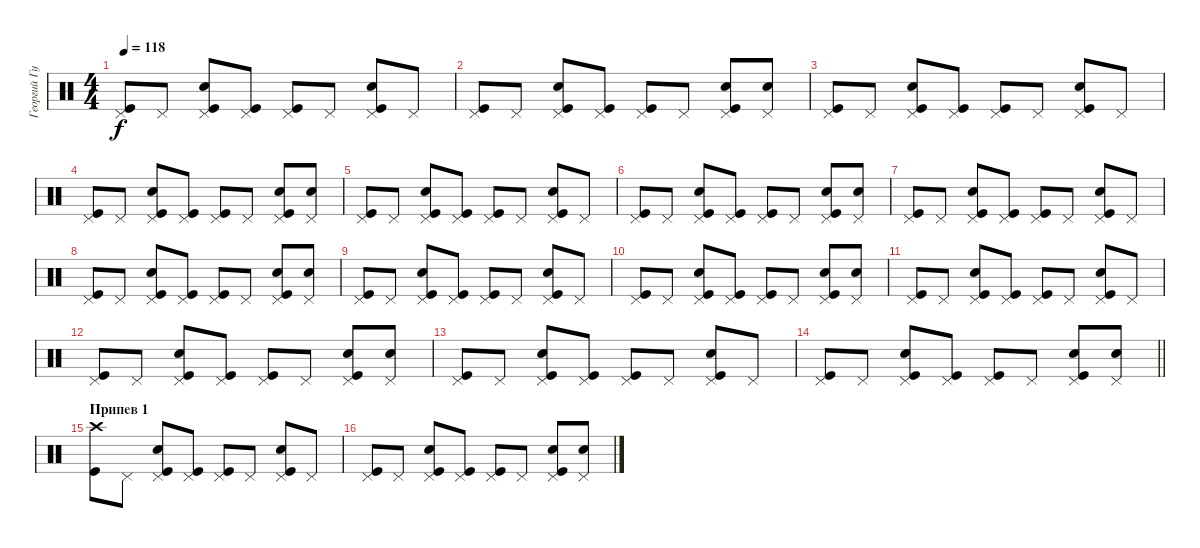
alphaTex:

\track ("Георгий Гурьянов" "Георгий Гу") {instrument percussion}
\staff {score}
\articulation defaults
\ts (4 4)
\tempo 118
\clef neutral
\ks c
("Pedal Hi-Hat (hit)" "Kick (hit)").8{dy f} "Pedal Hi-Hat (hit)".8 ("Pedal Hi-Hat (hit)" "Kick (hit)" "Snare (hit) 2").8 ("Pedal Hi-Hat (hit)" "Kick (hit)").8 ("Pedal Hi-Hat (hit)" "Kick (hit)").8 "Pedal Hi-Hat (hit)".8 ("Pedal Hi-Hat (hit)" "Kick (hit)" "Snare (hit) 2").8 "Pedal Hi-Hat (hit)".8 |
("Pedal Hi-Hat (hit)" "Kick (hit)").8 "Pedal Hi-Hat (hit)".8 ("Pedal Hi-Hat (hit)" "Kick (hit)" "Snare (hit) 2").8 ("Pedal Hi-Hat (hit)" "Kick (hit)").8 ("Pedal Hi-Hat (hit)" "Kick (hit)").8 "Pedal Hi-Hat (hit)".8 ("Pedal Hi-Hat (hit)" "Kick (hit)" "Snare (hit) 2").8 ("Pedal Hi-Hat (hit)" "Snare (hit) 2").8 |
("Pedal Hi-Hat (hit)" "Kick (hit)").8 "Pedal Hi-Hat (hit)".8 ("Pedal Hi-Hat (hit)" "Kick (hit)" "Snare (hit) 2").8 ("Pedal Hi-Hat (hit)" "Kick (hit)").8 ("Pedal Hi-Hat (hit)" "Kick (hit)").8 "Pedal Hi-Hat (hit)".8 ("Pedal Hi-Hat (hit)" "Kick (hit)" "Snare (hit) 2").8 "Pedal Hi-Hat (hit)".8 |
("Pedal Hi-Hat (hit)" "Kick (hit)").8 "Pedal Hi-Hat (hit)".8 ("Pedal Hi-Hat (hit)" "Kick (hit)" "Snare (hit) 2").8 ("Pedal Hi-Hat (hit)" "Kick (hit)").8 ("Pedal Hi-Hat (hit)" "Kick (hit)").8 "Pedal Hi-Hat (hit)".8 ("Pedal Hi-Hat (hit)" "Kick (hit)" "Snare (hit) 2").8 ("Pedal Hi-Hat (hit)" "Snare (hit) 2").8 |
("Pedal Hi-Hat (hit)" "Kick (hit)").8 "Pedal Hi-Hat (hit)".8 ("Pedal Hi-Hat (hit)" "Kick (hit)" "Snare (hit) 2").8 ("Pedal Hi-Hat (hit)" "Kick (hit)").8 ("Pedal Hi-Hat (hit)" "Kick (hit)").8 "Pedal Hi-Hat (hit)".8 ("Pedal Hi-Hat (hit)" "Kick (hit)" "Snare (hit) 2").8 "Pedal Hi-Hat (hit)".8 |
("Pedal Hi-Hat (hit)" "Kick (hit)").8 "Pedal Hi-Hat (hit)".8 ("Pedal Hi-Hat (hit)" "Kick (hit)" "Snare (hit) 2").8 ("Pedal Hi-Hat (hit)" "Kick (hit)").8 ("Pedal Hi-Hat (hit)" "Kick (hit)").8 "Pedal Hi-Hat (hit)".8 ("Pedal Hi-Hat (hit)" "Kick (hit)" "Snare (hit) 2").8 ("Pedal Hi-Hat (hit)" "Snare (hit) 2").8 |
("Pedal Hi-Hat (hit)" "Kick (hit)").8 "Pedal Hi-Hat (hit)".8 ("Pedal Hi-Hat (hit)" "Kick (hit)" "Snare (hit) 2").8 ("Pedal Hi-Hat (hit)" "Kick (hit)").8 ("Pedal Hi-Hat (hit)" "Kick (hit)").8 "Pedal Hi-Hat (hit)".8 ("Pedal Hi-Hat (hit)" "Kick (hit)" "Snare (hit) 2").8 "Pedal Hi-Hat (hit)".8 |
("Pedal Hi-Hat (hit)" "Kick (hit)").8 "Pedal Hi-Hat (hit)".8 ("Pedal Hi-Hat (hit)" "Kick (hit)" "Snare (hit) 2").8 ("Pedal Hi-Hat (hit)" "Kick (hit)").8 ("Pedal Hi-Hat (hit)" "Kick (hit)").8 "Pedal Hi-Hat (hit)".8 ("Pedal Hi-Hat (hit)" "Kick (hit)" "Snare (hit) 2").8 ("Pedal Hi-Hat (hit)" "Snare (hit) 2").8 |
("Pedal Hi-Hat (hit)" "Kick (hit)").8 "Pedal Hi-Hat (hit)".8 ("Pedal Hi-Hat (hit)" "Kick (hit)" "Snare (hit) 2").8 ("Pedal Hi-Hat (hit)" "Kick (hit)").8 ("Pedal Hi-Hat (hit)" "Kick (hit)").8 "Pedal Hi-Hat (hit)".8 ("Pedal Hi-Hat (hit)" "Kick (hit)" "Snare (hit) 2").8 "Pedal Hi-Hat (hit)".8 |
("Pedal Hi-Hat (hit)" "Kick (hit)").8 "Pedal Hi-Hat (hit)".8 ("Pedal Hi-Hat (hit)" "Kick (hit)" "Snare (hit) 2").8 ("Pedal Hi-Hat (hit)" "Kick (hit)").8 ("Pedal Hi-Hat (hit)" "Kick (hit)").8 "Pedal Hi-Hat (hit)".8 ("Pedal Hi-Hat (hit)" "Kick (hit)" "Snare (hit) 2").8 ("Pedal Hi-Hat (hit)" "Snare (hit) 2").8 |
("Pedal Hi-Hat (hit)" "Kick (hit)").8 "Pedal Hi-Hat (hit)".8 ("Pedal Hi-Hat (hit)" "Kick (hit)" "Snare (hit) 2").8 ("Pedal Hi-Hat (hit)" "Kick (hit)").8 ("Pedal Hi-Hat (hit)" "Kick (hit)").8 "Pedal Hi-Hat (hit)".8 ("Pedal Hi-Hat (hit)" "Kick (hit)" "Snare (hit) 2").8 "Pedal Hi-Hat (hit)".8 |
("Pedal Hi-Hat (hit)" "Kick (hit)").8 "Pedal Hi-Hat (hit)".8 ("Pedal Hi-Hat (hit)" "Kick (hit)" "Snare (hit) 2").8 ("Pedal Hi-Hat (hit)" "Kick (hit)").8 ("Pedal Hi-Hat (hit)" "Kick (hit)").8 "Pedal Hi-Hat (hit)".8 ("Pedal Hi-Hat (hit)" "Kick (hit)" "Snare (hit) 2").8 ("Pedal Hi-Hat (hit)" "Snare (hit) 2").8 |
("Pedal Hi-Hat (hit)" "Kick (hit)").8 "Pedal Hi-Hat (hit)".8 ("Pedal Hi-Hat (hit)" "Kick (hit)" "Snare (hit) 2").8 ("Pedal Hi-Hat (hit)" "Kick (hit)").8 ("Pedal Hi-Hat (hit)" "Kick (hit)").8 "Pedal Hi-Hat (hit)".8 ("Pedal Hi-Hat (hit)" "Kick (hit)" "Snare (hit) 2").8 "Pedal Hi-Hat (hit)".8 |
\barLineRight lightlight
("Pedal Hi-Hat (hit)" "Kick (hit)").8 "Pedal Hi-Hat (hit)".8 ("Pedal Hi-Hat (hit)" "Kick (hit)" "Snare (hit) 2").8 ("Pedal Hi-Hat (hit)" "Kick (hit)").8 ("Pedal Hi-Hat (hit)" "Kick (hit)").8 "Pedal Hi-Hat (hit)".8 ("Pedal Hi-Hat (hit)" "Kick (hit)" "Snare (hit) 2").8 ("Pedal Hi-Hat (hit)" "Snare (hit) 2").8 |
\section ("" "Припев 1")
("Crash high (hit)" "Kick (hit)").8 "Pedal Hi-Hat (hit)".8 ("Pedal Hi-Hat (hit)" "Kick (hit)" "Snare (hit) 2").8 ("Pedal Hi-Hat (hit)" "Kick (hit)").8 ("Pedal Hi-Hat (hit)" "Kick (hit)").8 "Pedal Hi-Hat (hit)".8 ("Pedal Hi-Hat (hit)" "Kick (hit)" "Snare (hit) 2").8 "Pedal Hi-Hat (hit)".8 |
("Pedal Hi-Hat (hit)" "Kick (hit)").8 "Pedal Hi-Hat (hit)".8 ("Pedal Hi-Hat (hit)" "Kick (hit)" "Snare (hit) 2").8 ("Pedal Hi-Hat (hit)" "Kick (hit)").8 ("Pedal Hi-Hat (hit)" "Kick (hit)").8 "Pedal Hi-Hat (hit)".8 ("Pedal Hi-Hat (hit)" "Kick (hit)" "Snare (hit) 2").8 ("Pedal Hi-Hat (hit)" "Snare (hit) 2").8
